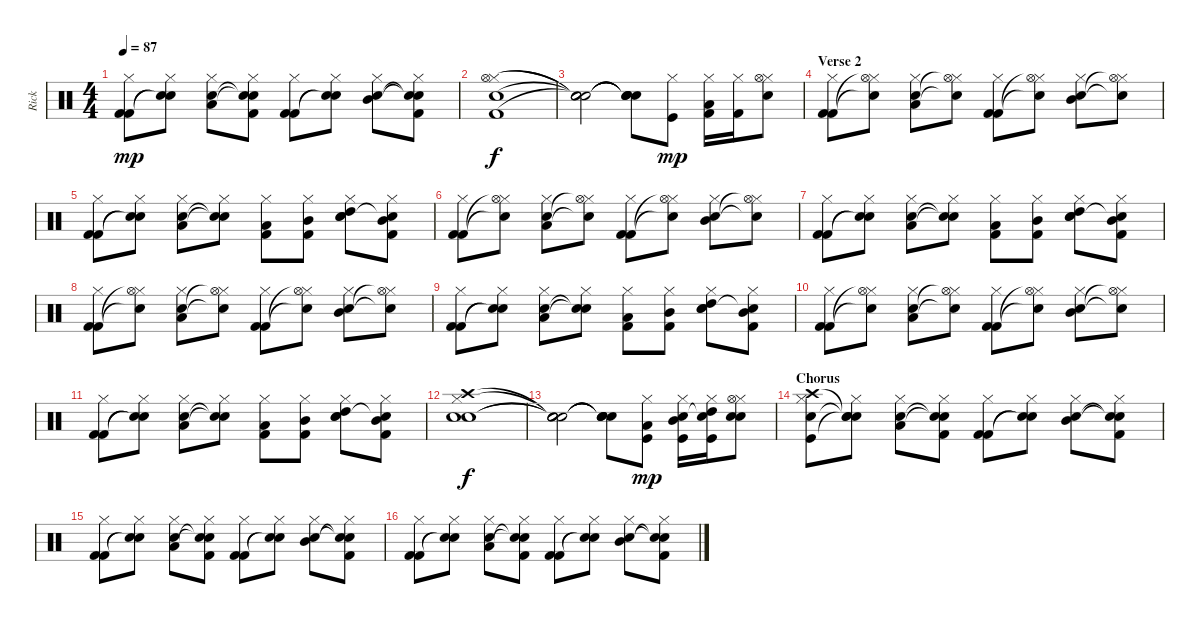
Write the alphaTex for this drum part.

\track ("Rick" "Rick") {instrument percussion}
\staff {score}
\articulation defaults
\ts (4 4)
\tempo 87
\clef neutral
\ks c
("Hi-Hat (closed)" "Kick (hit) 2" "Kick (hit) 2").8{dy mp} ("Hi-Hat (closed)" "Snare (hit)"{t} "Snare (hit)"{t}).8 ("Hi-Hat (closed)" "Electric Snare (hit)" "Low Tom (hit)").8 ("Hi-Hat (closed)" "Snare (hit)"{t} "Snare (hit)"{t} "Kick (hit) 2").8 ("Hi-Hat (closed)" "Kick (hit) 2" "Kick (hit) 2").8 ("Hi-Hat (closed)" "Snare (hit)"{t} "Snare (hit)"{t}).8 ("Hi-Hat (closed)" "Electric Snare (hit)" "Mid Tom (hit)").8 ("Hi-Hat (closed)" "Snare (hit)"{t} "Snare (hit)"{t} "Kick (hit) 2").8 |
("Hi-Hat (closed)" "Kick (hit) 2" "Hi-Hat (open)" "Electric Snare (hit)").1{dy f} |
("Snare (hit)"{t} "Snare (hit)"{t} "Snare (hit)"{t} "Snare (hit)"{t}).2 ("Snare (hit)"{t} "Snare (hit)"{t} "Snare (hit)"{t} "Snare (hit)"{t}).8 ("Hi-Hat (closed)" "Kick (hit)").8{dy mp} ("Hi-Hat (closed)" "Kick (hit) 2" "Low Tom (hit)").16 ("Hi-Hat (closed)" "Kick (hit) 2").16 ("Hi-Hat (closed)" "Snare (hit) 2" "Hi-Hat (open)").8 |
\section ("" "Verse 2")
("Hi-Hat (closed)" "Kick (hit) 2" "Kick (hit) 2").8 ("Hi-Hat (closed)" "Hi-Hat (open)"{t} "Snare (hit)"{t}).8 ("Hi-Hat (closed)" "Electric Snare (hit)" "Low Tom (hit)").8 ("Hi-Hat (closed)" "Hi-Hat (open)"{t} "Snare (hit)"{t}).8 ("Hi-Hat (closed)" "Kick (hit) 2" "Kick (hit) 2").8 ("Hi-Hat (closed)" "Hi-Hat (open)"{t} "Snare (hit)"{t}).8 ("Hi-Hat (closed)" "Electric Snare (hit)" "Mid Tom (hit)").8 ("Hi-Hat (closed)" "Hi-Hat (open)"{t} "Snare (hit)"{t}).8 |
("Hi-Hat (closed)" "Kick (hit) 2" "Kick (hit) 2").8 ("Hi-Hat (closed)" "Snare (hit)"{t} "Snare (hit)"{t}).8 ("Hi-Hat (closed)" "Electric Snare (hit)" "Low Tom (hit)").8 ("Hi-Hat (closed)" "Snare (hit)"{t} "Snare (hit)"{t}).8 ("Hi-Hat (closed)" "Low Tom (hit)" "Kick (hit) 2").8 ("Hi-Hat (closed)" "Mid Tom (hit)" "Kick (hit) 2").8 ("Hi-Hat (closed)" "Electric Snare (hit)" "High Tom (hit)" "Snare (hit) 2").8 ("Hi-Hat (closed)" "Mid Tom (hit)" "Kick (hit) 2" "Snare (hit)"{t}).8 |
("Hi-Hat (closed)" "Kick (hit) 2" "Kick (hit) 2").8 ("Hi-Hat (closed)" "Hi-Hat (open)"{t} "Snare (hit)"{t}).8 ("Hi-Hat (closed)" "Electric Snare (hit)" "Low Tom (hit)").8 ("Hi-Hat (closed)" "Hi-Hat (open)"{t} "Snare (hit)"{t}).8 ("Hi-Hat (closed)" "Kick (hit) 2" "Kick (hit) 2").8 ("Hi-Hat (closed)" "Hi-Hat (open)"{t} "Snare (hit)"{t}).8 ("Hi-Hat (closed)" "Electric Snare (hit)" "Mid Tom (hit)").8 ("Hi-Hat (closed)" "Hi-Hat (open)"{t} "Snare (hit)"{t}).8 |
("Hi-Hat (closed)" "Kick (hit) 2" "Kick (hit) 2").8 ("Hi-Hat (closed)" "Snare (hit)"{t} "Snare (hit)"{t}).8 ("Hi-Hat (closed)" "Electric Snare (hit)" "Low Tom (hit)").8 ("Hi-Hat (closed)" "Snare (hit)"{t} "Snare (hit)"{t}).8 ("Hi-Hat (closed)" "Low Tom (hit)" "Kick (hit) 2").8 ("Hi-Hat (closed)" "Mid Tom (hit)" "Kick (hit) 2").8 ("Hi-Hat (closed)" "Electric Snare (hit)" "High Tom (hit)" "Snare (hit) 2").8 ("Hi-Hat (closed)" "Mid Tom (hit)" "Kick (hit) 2" "Snare (hit)"{t}).8 |
("Hi-Hat (closed)" "Kick (hit) 2" "Kick (hit) 2").8 ("Hi-Hat (closed)" "Hi-Hat (open)"{t} "Snare (hit)"{t}).8 ("Hi-Hat (closed)" "Electric Snare (hit)" "Low Tom (hit)").8 ("Hi-Hat (closed)" "Hi-Hat (open)"{t} "Snare (hit)"{t}).8 ("Hi-Hat (closed)" "Kick (hit) 2" "Kick (hit) 2").8 ("Hi-Hat (closed)" "Hi-Hat (open)"{t} "Snare (hit)"{t}).8 ("Hi-Hat (closed)" "Electric Snare (hit)" "Mid Tom (hit)").8 ("Hi-Hat (closed)" "Hi-Hat (open)"{t} "Snare (hit)"{t}).8 |
("Hi-Hat (closed)" "Kick (hit) 2" "Kick (hit) 2").8 ("Hi-Hat (closed)" "Snare (hit)"{t} "Snare (hit)"{t}).8 ("Hi-Hat (closed)" "Electric Snare (hit)" "Low Tom (hit)").8 ("Hi-Hat (closed)" "Snare (hit)"{t} "Snare (hit)"{t}).8 ("Hi-Hat (closed)" "Low Tom (hit)" "Kick (hit) 2").8 ("Hi-Hat (closed)" "Mid Tom (hit)" "Kick (hit) 2").8 ("Hi-Hat (closed)" "Electric Snare (hit)" "High Tom (hit)" "Snare (hit) 2").8 ("Hi-Hat (closed)" "Mid Tom (hit)" "Kick (hit) 2" "Snare (hit)"{t}).8 |
("Hi-Hat (closed)" "Kick (hit) 2" "Kick (hit) 2").8 ("Hi-Hat (closed)" "Hi-Hat (open)"{t} "Snare (hit)"{t}).8 ("Hi-Hat (closed)" "Electric Snare (hit)" "Low Tom (hit)").8 ("Hi-Hat (closed)" "Hi-Hat (open)"{t} "Snare (hit)"{t}).8 ("Hi-Hat (closed)" "Kick (hit) 2" "Kick (hit) 2").8 ("Hi-Hat (closed)" "Hi-Hat (open)"{t} "Snare (hit)"{t}).8 ("Hi-Hat (closed)" "Electric Snare (hit)" "Mid Tom (hit)").8 ("Hi-Hat (closed)" "Hi-Hat (open)"{t} "Snare (hit)"{t}).8 |
("Hi-Hat (closed)" "Kick (hit) 2" "Kick (hit) 2").8 ("Hi-Hat (closed)" "Snare (hit)"{t} "Snare (hit)"{t}).8 ("Hi-Hat (closed)" "Electric Snare (hit)" "Low Tom (hit)").8 ("Hi-Hat (closed)" "Snare (hit)"{t} "Snare (hit)"{t}).8 ("Hi-Hat (closed)" "Low Tom (hit)" "Kick (hit) 2").8 ("Hi-Hat (closed)" "Mid Tom (hit)" "Kick (hit) 2").8 ("Hi-Hat (closed)" "Electric Snare (hit)" "High Tom (hit)" "Snare (hit) 2").8 ("Hi-Hat (closed)" "Mid Tom (hit)" "Kick (hit) 2" "Snare (hit)"{t}).8 |
("Hi-Hat (closed)" "Electric Snare (hit)" "Snare (hit) 2" "Crash high (hit)").1{dy f} |
("Snare (hit)"{t} "Snare (hit)"{t} "Snare (hit)"{t} "Snare (hit)"{t}).2 ("Snare (hit)"{t} "Snare (hit)"{t} "Snare (hit)"{t} "Snare (hit)"{t}).8 ("Hi-Hat (closed)" "Kick (hit)" "Low Tom (hit)").8{dy mp} ("Hi-Hat (closed)" "Kick (hit)" "Mid Tom (hit)" "Electric Snare (hit)").16 ("Hi-Hat (closed)" "Kick (hit)" "High Tom (hit)" "Snare (hit) 2"{t}).16 ("Hi-Hat (closed)" "Electric Snare (hit)" "Snare (hit) 2" "Hi-Hat (open)").8 |
\section ("" "Chorus")
("Hi-Hat (closed)" "Electric Snare (hit)" "Kick (hit)" "Crash high (hit)").8 ("Hi-Hat (closed)" "Snare (hit)"{t} "Snare (hit)"{t} "Snare (hit)"{t}).8 ("Hi-Hat (closed)" "Electric Snare (hit)" "Low Tom (hit)").8 ("Hi-Hat (closed)" "Snare (hit)"{t} "Snare (hit)"{t} "Kick (hit) 2").8 ("Hi-Hat (closed)" "Kick (hit) 2" "Kick (hit) 2").8 ("Hi-Hat (closed)" "Snare (hit)"{t} "Snare (hit)"{t}).8 ("Hi-Hat (closed)" "Electric Snare (hit)" "Mid Tom (hit)").8 ("Hi-Hat (closed)" "Snare (hit)"{t} "Snare (hit)"{t} "Kick (hit) 2").8 |
("Hi-Hat (closed)" "Kick (hit) 2" "Kick (hit) 2").8 ("Hi-Hat (closed)" "Snare (hit)"{t} "Snare (hit)"{t}).8 ("Hi-Hat (closed)" "Electric Snare (hit)" "Low Tom (hit)").8 ("Hi-Hat (closed)" "Snare (hit)"{t} "Snare (hit)"{t} "Kick (hit) 2").8 ("Hi-Hat (closed)" "Kick (hit) 2" "Kick (hit) 2").8 ("Hi-Hat (closed)" "Snare (hit)"{t} "Snare (hit)"{t}).8 ("Hi-Hat (closed)" "Electric Snare (hit)" "Mid Tom (hit)").8 ("Hi-Hat (closed)" "Snare (hit)"{t} "Snare (hit)"{t} "Kick (hit) 2").8 |
("Hi-Hat (closed)" "Kick (hit) 2" "Kick (hit) 2").8 ("Hi-Hat (closed)" "Snare (hit)"{t} "Snare (hit)"{t}).8 ("Hi-Hat (closed)" "Electric Snare (hit)" "Low Tom (hit)").8 ("Hi-Hat (closed)" "Snare (hit)"{t} "Snare (hit)"{t} "Kick (hit) 2").8 ("Hi-Hat (closed)" "Kick (hit) 2" "Kick (hit) 2").8 ("Hi-Hat (closed)" "Snare (hit)"{t} "Snare (hit)"{t}).8 ("Hi-Hat (closed)" "Electric Snare (hit)" "Mid Tom (hit)").8 ("Hi-Hat (closed)" "Snare (hit)"{t} "Snare (hit)"{t} "Kick (hit) 2").8
